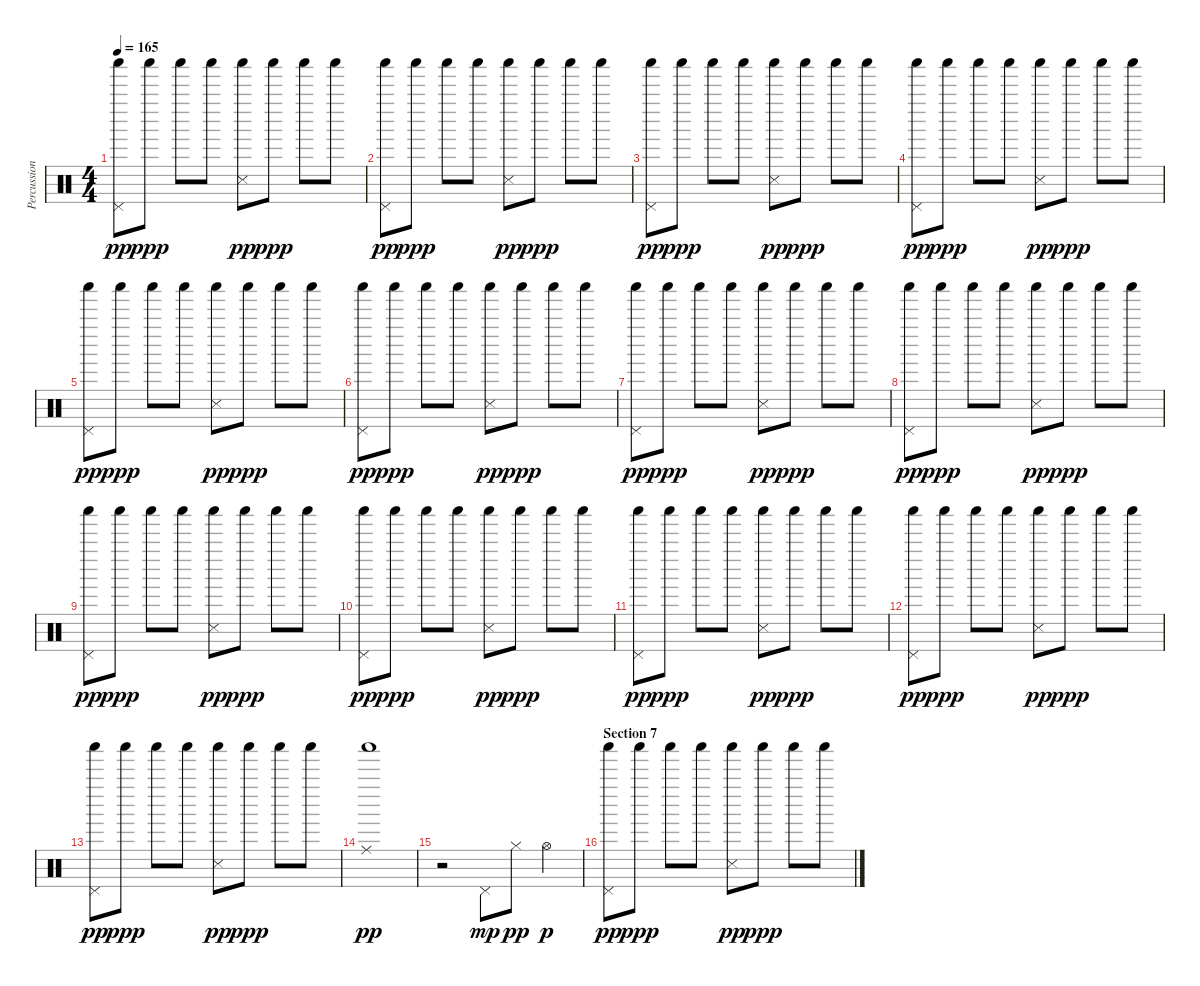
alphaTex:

\track ("Percussion" "Percussion") {instrument percussion}
\staff {score}
\articulation defaults
\ts (4 4)
\tempo 165
\clef neutral
\ks c
("Pedal Hi-Hat (hit)" "Shaker (hit)").8{dy pp} "Shaker (hit)".8{dy ppp} "Shaker (hit)".8 "Shaker (hit)".8 ("Snare (side stick) 3" "Shaker (hit)").8{dy pp} "Shaker (hit)".8{dy ppp} "Shaker (hit)".8 "Shaker (hit)".8 |
("Pedal Hi-Hat (hit)" "Shaker (hit)").8{dy pp} "Shaker (hit)".8{dy ppp} "Shaker (hit)".8 "Shaker (hit)".8 ("Snare (side stick) 3" "Shaker (hit)").8{dy pp} "Shaker (hit)".8{dy ppp} "Shaker (hit)".8 "Shaker (hit)".8 |
("Pedal Hi-Hat (hit)" "Shaker (hit)").8{dy pp} "Shaker (hit)".8{dy ppp} "Shaker (hit)".8 "Shaker (hit)".8 ("Snare (side stick) 3" "Shaker (hit)").8{dy pp} "Shaker (hit)".8{dy ppp} "Shaker (hit)".8 "Shaker (hit)".8 |
("Pedal Hi-Hat (hit)" "Shaker (hit)").8{dy pp} "Shaker (hit)".8{dy ppp} "Shaker (hit)".8 "Shaker (hit)".8 ("Snare (side stick) 3" "Shaker (hit)").8{dy pp} "Shaker (hit)".8{dy ppp} "Shaker (hit)".8 "Shaker (hit)".8 |
("Pedal Hi-Hat (hit)" "Shaker (hit)").8{dy pp} "Shaker (hit)".8{dy ppp} "Shaker (hit)".8 "Shaker (hit)".8 ("Snare (side stick) 3" "Shaker (hit)").8{dy pp} "Shaker (hit)".8{dy ppp} "Shaker (hit)".8 "Shaker (hit)".8 |
("Pedal Hi-Hat (hit)" "Shaker (hit)").8{dy pp} "Shaker (hit)".8{dy ppp} "Shaker (hit)".8 "Shaker (hit)".8 ("Snare (side stick) 3" "Shaker (hit)").8{dy pp} "Shaker (hit)".8{dy ppp} "Shaker (hit)".8 "Shaker (hit)".8 |
("Pedal Hi-Hat (hit)" "Shaker (hit)").8{dy pp} "Shaker (hit)".8{dy ppp} "Shaker (hit)".8 "Shaker (hit)".8 ("Snare (side stick) 3" "Shaker (hit)").8{dy pp} "Shaker (hit)".8{dy ppp} "Shaker (hit)".8 "Shaker (hit)".8 |
("Pedal Hi-Hat (hit)" "Shaker (hit)").8{dy pp} "Shaker (hit)".8{dy ppp} "Shaker (hit)".8 "Shaker (hit)".8 ("Snare (side stick) 3" "Shaker (hit)").8{dy pp} "Shaker (hit)".8{dy ppp} "Shaker (hit)".8 "Shaker (hit)".8 |
("Pedal Hi-Hat (hit)" "Shaker (hit)").8{dy pp} "Shaker (hit)".8{dy ppp} "Shaker (hit)".8 "Shaker (hit)".8 ("Snare (side stick) 3" "Shaker (hit)").8{dy pp} "Shaker (hit)".8{dy ppp} "Shaker (hit)".8 "Shaker (hit)".8 |
("Pedal Hi-Hat (hit)" "Shaker (hit)").8{dy pp} "Shaker (hit)".8{dy ppp} "Shaker (hit)".8 "Shaker (hit)".8 ("Snare (side stick) 3" "Shaker (hit)").8{dy pp} "Shaker (hit)".8{dy ppp} "Shaker (hit)".8 "Shaker (hit)".8 |
("Pedal Hi-Hat (hit)" "Shaker (hit)").8{dy pp} "Shaker (hit)".8{dy ppp} "Shaker (hit)".8 "Shaker (hit)".8 ("Snare (side stick) 3" "Shaker (hit)").8{dy pp} "Shaker (hit)".8{dy ppp} "Shaker (hit)".8 "Shaker (hit)".8 |
("Pedal Hi-Hat (hit)" "Shaker (hit)").8{dy pp} "Shaker (hit)".8{dy ppp} "Shaker (hit)".8 "Shaker (hit)".8 ("Snare (side stick) 3" "Shaker (hit)").8{dy pp} "Shaker (hit)".8{dy ppp} "Shaker (hit)".8 "Shaker (hit)".8 |
("Pedal Hi-Hat (hit)" "Shaker (hit)").8{dy pp} "Shaker (hit)".8{dy ppp} "Shaker (hit)".8 "Shaker (hit)".8 ("Snare (side stick) 3" "Shaker (hit)").8{dy pp} "Shaker (hit)".8{dy ppp} "Shaker (hit)".8 "Shaker (hit)".8 |
("Ride (middle)" "Shaker (hit)").1{dy pp} |
r.2 "Pedal Hi-Hat (hit)".8{dy mp} "Hi-Hat (closed)".8{dy pp} "Hi-Hat (open)".4{dy p} |
\section ("" "Section 7")
("Pedal Hi-Hat (hit)" "Shaker (hit)").8{dy pp} "Shaker (hit)".8{dy ppp} "Shaker (hit)".8 "Shaker (hit)".8 ("Snare (side stick) 3" "Shaker (hit)").8{dy pp} "Shaker (hit)".8{dy ppp} "Shaker (hit)".8 "Shaker (hit)".8
